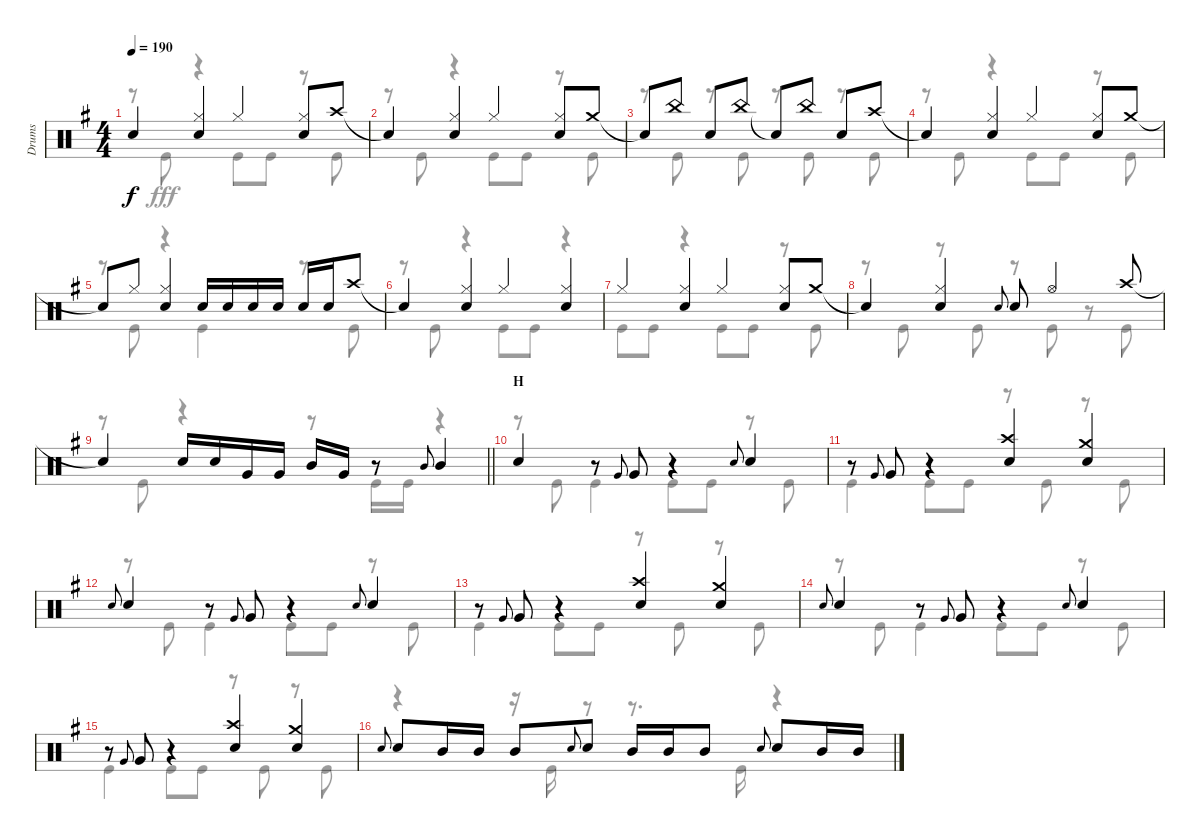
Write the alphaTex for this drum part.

\track ("Drums" "Drums") {instrument percussion}
\staff {score}
\articulation defaults
\voice
\ts (4 4)
\tempo 190
\clef neutral
\ks g "Snare (hit)"{t}.4{dy f}
("Hi-Hat (closed)" "Snare (hit) 2").4 "Hi-Hat (closed)".4 ("Hi-Hat (closed)" "Snare (hit) 2").8 "Crash high (hit)".8 |
"Snare (hit)"{t}.4 ("Hi-Hat (closed)" "Snare (hit) 2").4 "Hi-Hat (closed)".4 ("Hi-Hat (closed)" "Snare (hit) 2").8 "Crash medium (hit)".8 |
"Snare (hit)"{t}.8 "China (hit)".8 "Snare (hit) 2".8 "China (hit)".8 "Snare (hit)"{t}.8 "China (hit)".8 "Snare (hit) 2".8 "Crash high (hit)".8 |
"Snare (hit)"{t}.4 ("Hi-Hat (closed)" "Snare (hit) 2").4 "Hi-Hat (closed)".4 ("Hi-Hat (closed)" "Snare (hit) 2").8 "Crash medium (hit)".8 |
"Snare (hit)"{t}.8 "Hi-Hat (closed)".8 ("Hi-Hat (closed)" "Snare (hit) 2").4 "Snare (hit) 2".16 "Snare (hit) 2".16 "Snare (hit) 2".16 "Snare (hit) 2".16 "Snare (hit) 2".16 "Snare (hit) 2".16 "Crash high (hit)".8 |
"Snare (hit)"{t}.4 ("Hi-Hat (closed)" "Snare (hit) 2").4 "Hi-Hat (closed)".4 ("Hi-Hat (closed)" "Snare (hit) 2").4 |
"Hi-Hat (closed)".4 ("Hi-Hat (closed)" "Snare (hit) 2").4 "Hi-Hat (closed)".4 ("Hi-Hat (closed)" "Snare (hit) 2").8 "Crash medium (hit)".8 |
"Snare (hit)"{t}.4 ("Hi-Hat (closed)" "Snare (hit) 2").4 "Snare (hit) 2".8{gr onbeat} "Snare (hit) 2".8 "Hi-Hat (open)".4 "Crash high (hit)".8 |
\barLineRight lightlight "Snare (hit)"{t}.4 "Snare (hit) 2".16 "Snare (hit) 2".16 "Very Low Tom (hit)".16 "Very Low Tom (hit)".16 "Mid Tom (hit)".16 "Very Low Tom (hit)".16
r.8 "Mid Tom (hit)".8{gr onbeat} "Mid Tom (hit)".4 |
\section ("" "H")
"Snare (hit) 2".4 r.8 "Very Low Tom (hit)".8{gr onbeat} "Very Low Tom (hit)".8 r.4 "Snare (hit) 2".8{gr onbeat} "Snare (hit) 2".4 |
r.8 "Very Low Tom (hit)".8{gr onbeat} "Very Low Tom (hit)".8 r.4 ("Crash high (hit)" "Snare (hit) 2").4 ("Crash medium (hit)" "Snare (hit) 2").4 |
"Snare (hit) 2".8{gr onbeat} "Snare (hit) 2".4 r.8 "Very Low Tom (hit)".8{gr onbeat} "Very Low Tom (hit)".8 r.4 "Snare (hit) 2".8{gr onbeat} "Snare (hit) 2".4 |
r.8 "Very Low Tom (hit)".8{gr onbeat} "Very Low Tom (hit)".8 r.4 ("Crash high (hit)" "Snare (hit) 2").4 ("Crash medium (hit)" "Snare (hit) 2").4 |
"Snare (hit) 2".8{gr onbeat} "Snare (hit) 2".4 r.8 "Very Low Tom (hit)".8{gr onbeat} "Very Low Tom (hit)".8 r.4 "Snare (hit) 2".8{gr onbeat} "Snare (hit) 2".4 |
r.8 "Very Low Tom (hit)".8{gr onbeat} "Very Low Tom (hit)".8 r.4 ("Crash high (hit)" "Snare (hit) 2").4 ("Crash medium (hit)" "Snare (hit) 2").4 |
"Snare (hit) 2".8{gr onbeat} "Snare (hit) 2".8 "Mid Tom (hit)".16 "Mid Tom (hit)".16 "Mid Tom (hit)".8 "Snare (hit) 2".8{gr onbeat} "Snare (hit) 2".8 "Mid Tom (hit)".16 "Mid Tom (hit)".16 "Mid Tom (hit)".8 "Snare (hit) 2".8{gr onbeat} "Snare (hit) 2".8 "Mid Tom (hit)".16 "Mid Tom (hit)".16
\voice
\clef neutral
\ottava regular
\simile none
\ks g
r.8{dy fff} "Kick (hit)".8 r.4 "Kick (hit)".8 "Kick (hit)".8 r.8 "Kick (hit)".8 |
r.8 "Kick (hit)".8 r.4 "Kick (hit)".8 "Kick (hit)".8 r.8 "Kick (hit)".8 |
r.8 "Kick (hit)".8 r.8 "Kick (hit)".8 r.8 "Kick (hit)".8 r.8 "Kick (hit)".8 |
r.8 "Kick (hit)".8 r.4 "Kick (hit)".8 "Kick (hit)".8 r.8 "Kick (hit)".8 |
r.8 "Kick (hit)".8 r.4 "Kick (hit)".4 r.8 "Kick (hit)".8 |
r.8 "Kick (hit)".8 r.4 "Kick (hit)".8 "Kick (hit)".8 r.4 |
"Kick (hit)".8 "Kick (hit)".8 r.4 "Kick (hit)".8 "Kick (hit)".8 r.8 "Kick (hit)".8 |
r.8 "Kick (hit)".8 r.8 "Kick (hit)".8 r.8 "Kick (hit)".8 r.8 "Kick (hit)".8 |
\barLineRight lightlight
r.8 "Kick (hit)".8 r.4 r.8 "Kick (hit)".16 "Kick (hit)".16 r.4 |
r.8 "Kick (hit)".8 "Kick (hit)".4 "Kick (hit)".8 "Kick (hit)".8 r.8 "Kick (hit)".8 |
"Kick (hit)".4 "Kick (hit)".8 "Kick (hit)".8 r.8 "Kick (hit)".8 r.8 "Kick (hit)".8 |
r.8 "Kick (hit)".8 "Kick (hit)".4 "Kick (hit)".8 "Kick (hit)".8 r.8 "Kick (hit)".8 |
"Kick (hit)".4 "Kick (hit)".8 "Kick (hit)".8 r.8 "Kick (hit)".8 r.8 "Kick (hit)".8 |
r.8 "Kick (hit)".8 "Kick (hit)".4 "Kick (hit)".8 "Kick (hit)".8 r.8 "Kick (hit)".8 |
"Kick (hit)".4 "Kick (hit)".8 "Kick (hit)".8 r.8 "Kick (hit)".8 r.8 "Kick (hit)".8 |
r.4 r.16 "Kick (hit)".16 r.8 r.8{d} "Kick (hit)".16 r.4
